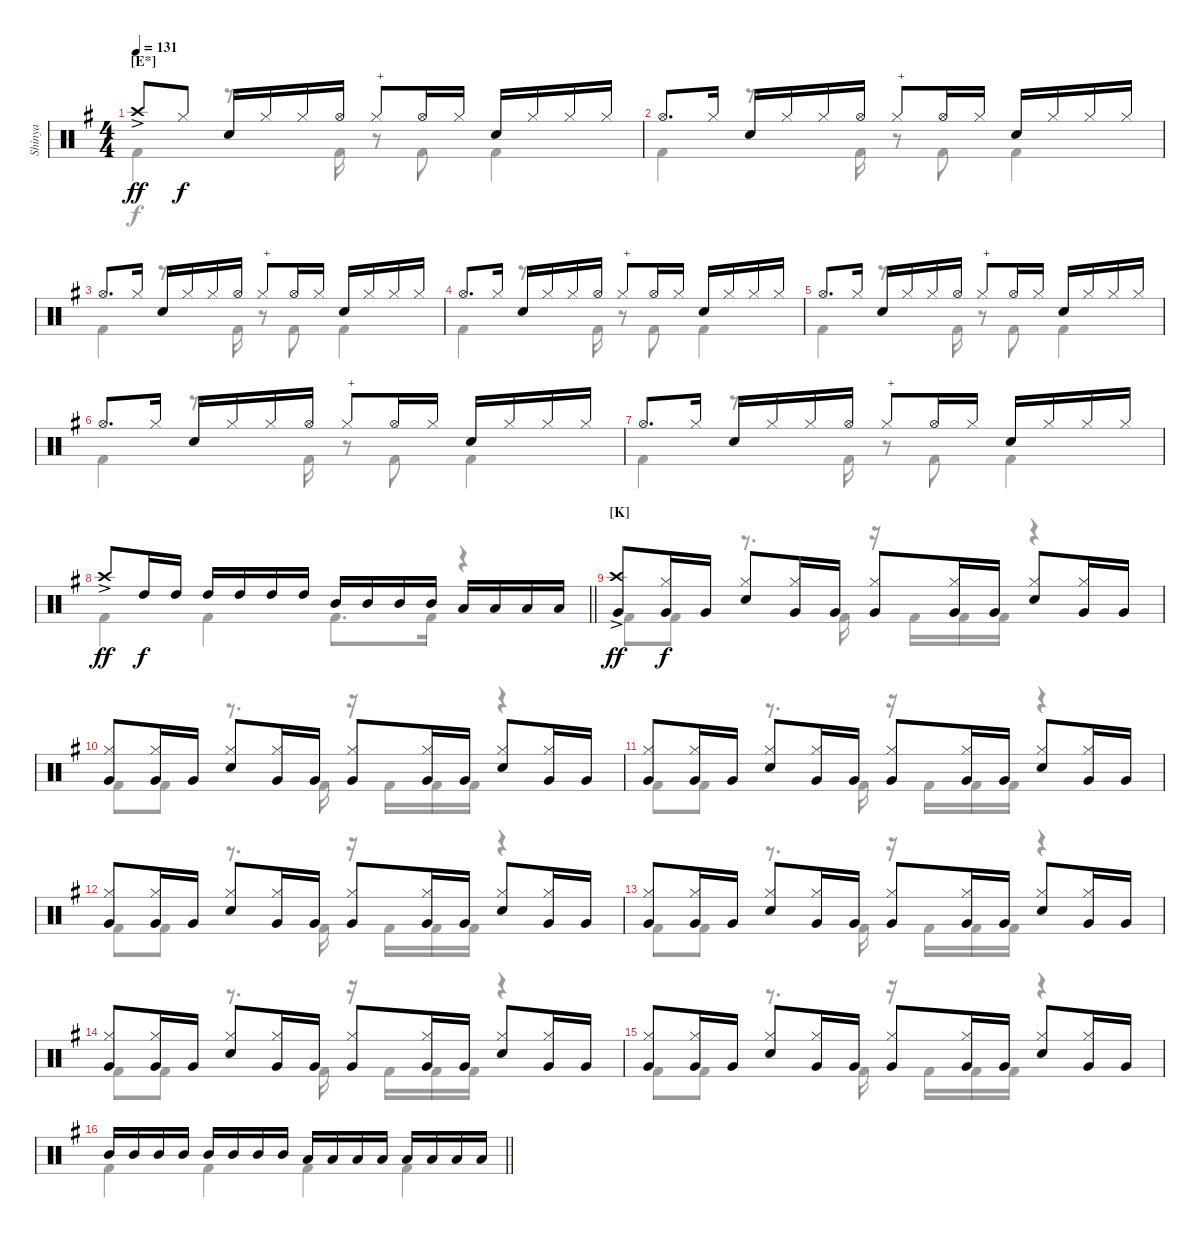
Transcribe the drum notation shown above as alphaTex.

\track ("Shinya" "Shinya") {instrument percussion}
\staff {score}
\articulation defaults
\voice
\ts (4 4)
\section ("" "[E*]")
\tempo 131
\clef neutral
\ks eminor "Crash high (hit)"{ac}.8{dy ff} "Hi-Hat (closed)".8{dy f} "Snare (hit) 2".16 "Hi-Hat (closed)".16 "Hi-Hat (closed)".16 "Hi-Hat (open)".16 "Hi-Hat (closed)".8{txt "+"} "Hi-Hat (open)".16 "Hi-Hat (closed)".16 "Snare (hit) 2".16 "Hi-Hat (closed)".16 "Hi-Hat (closed)".16 "Hi-Hat (closed)".16
|
"Hi-Hat (open)".8{d} "Hi-Hat (closed)".16 "Snare (hit) 2".16 "Hi-Hat (closed)".16 "Hi-Hat (closed)".16 "Hi-Hat (open)".16 "Hi-Hat (closed)".8{txt "+"} "Hi-Hat (open)".16 "Hi-Hat (closed)".16 "Snare (hit) 2".16 "Hi-Hat (closed)".16 "Hi-Hat (closed)".16 "Hi-Hat (closed)".16 |
"Hi-Hat (open)".8{d} "Hi-Hat (closed)".16 "Snare (hit) 2".16 "Hi-Hat (closed)".16 "Hi-Hat (closed)".16 "Hi-Hat (open)".16 "Hi-Hat (closed)".8{txt "+"} "Hi-Hat (open)".16 "Hi-Hat (closed)".16 "Snare (hit) 2".16 "Hi-Hat (closed)".16 "Hi-Hat (closed)".16 "Hi-Hat (closed)".16 |
"Hi-Hat (open)".8{d} "Hi-Hat (closed)".16 "Snare (hit) 2".16 "Hi-Hat (closed)".16 "Hi-Hat (closed)".16 "Hi-Hat (open)".16 "Hi-Hat (closed)".8{txt "+"} "Hi-Hat (open)".16 "Hi-Hat (closed)".16 "Snare (hit) 2".16 "Hi-Hat (closed)".16 "Hi-Hat (closed)".16 "Hi-Hat (closed)".16 |
"Hi-Hat (open)".8{d} "Hi-Hat (closed)".16 "Snare (hit) 2".16 "Hi-Hat (closed)".16 "Hi-Hat (closed)".16 "Hi-Hat (open)".16 "Hi-Hat (closed)".8{txt "+"} "Hi-Hat (open)".16 "Hi-Hat (closed)".16 "Snare (hit) 2".16 "Hi-Hat (closed)".16 "Hi-Hat (closed)".16 "Hi-Hat (closed)".16 |
"Hi-Hat (open)".8{d} "Hi-Hat (closed)".16 "Snare (hit) 2".16 "Hi-Hat (closed)".16 "Hi-Hat (closed)".16 "Hi-Hat (open)".16 "Hi-Hat (closed)".8{txt "+"} "Hi-Hat (open)".16 "Hi-Hat (closed)".16 "Snare (hit) 2".16 "Hi-Hat (closed)".16 "Hi-Hat (closed)".16 "Hi-Hat (closed)".16 |
"Hi-Hat (open)".8{d} "Hi-Hat (closed)".16 "Snare (hit) 2".16 "Hi-Hat (closed)".16 "Hi-Hat (closed)".16 "Hi-Hat (open)".16 "Hi-Hat (closed)".8{txt "+"} "Hi-Hat (open)".16 "Hi-Hat (closed)".16 "Snare (hit) 2".16 "Hi-Hat (closed)".16 "Hi-Hat (closed)".16 "Hi-Hat (closed)".16 |
\barLineRight lightlight "Crash high (hit)"{ac}.8{dy ff} "High Tom (hit)".16{dy f} "High Tom (hit)".16 "High Tom (hit)".16 "High Tom (hit)".16 "High Tom (hit)".16 "High Tom (hit)".16 "Mid Tom (hit)".16 "Mid Tom (hit)".16 "Mid Tom (hit)".16 "Mid Tom (hit)".16 "Low Tom (hit)".16 "Low Tom (hit)".16 "Low Tom (hit)".16 "Low Tom (hit)".16
|
\section ("" "[K]")
("Crash high (hit)"{ac} "Very Low Tom (hit)").8{dy ff} ("Hi-Hat (closed)" "Very Low Tom (hit)").16{dy f} "Very Low Tom (hit)".16 ("Hi-Hat (closed)" "Snare (hit) 2").8 ("Hi-Hat (closed)" "Very Low Tom (hit)").16 "Very Low Tom (hit)".16 ("Hi-Hat (closed)" "Very Low Tom (hit)").8 ("Hi-Hat (closed)" "Very Low Tom (hit)").16 "Very Low Tom (hit)".16 ("Hi-Hat (closed)" "Snare (hit) 2").8 ("Hi-Hat (closed)" "Very Low Tom (hit)").16 "Very Low Tom (hit)".16 |
("Hi-Hat (closed)" "Very Low Tom (hit)").8 ("Hi-Hat (closed)" "Very Low Tom (hit)").16 "Very Low Tom (hit)".16 ("Hi-Hat (closed)" "Snare (hit) 2").8 ("Hi-Hat (closed)" "Very Low Tom (hit)").16 "Very Low Tom (hit)".16 ("Hi-Hat (closed)" "Very Low Tom (hit)").8 ("Hi-Hat (closed)" "Very Low Tom (hit)").16 "Very Low Tom (hit)".16 ("Hi-Hat (closed)" "Snare (hit) 2").8 ("Hi-Hat (closed)" "Very Low Tom (hit)").16 "Very Low Tom (hit)".16 |
("Hi-Hat (closed)" "Very Low Tom (hit)").8 ("Hi-Hat (closed)" "Very Low Tom (hit)").16 "Very Low Tom (hit)".16 ("Hi-Hat (closed)" "Snare (hit) 2").8 ("Hi-Hat (closed)" "Very Low Tom (hit)").16 "Very Low Tom (hit)".16 ("Hi-Hat (closed)" "Very Low Tom (hit)").8 ("Hi-Hat (closed)" "Very Low Tom (hit)").16 "Very Low Tom (hit)".16 ("Hi-Hat (closed)" "Snare (hit) 2").8 ("Hi-Hat (closed)" "Very Low Tom (hit)").16 "Very Low Tom (hit)".16 |
("Hi-Hat (closed)" "Very Low Tom (hit)").8 ("Hi-Hat (closed)" "Very Low Tom (hit)").16 "Very Low Tom (hit)".16 ("Hi-Hat (closed)" "Snare (hit) 2").8 ("Hi-Hat (closed)" "Very Low Tom (hit)").16 "Very Low Tom (hit)".16 ("Hi-Hat (closed)" "Very Low Tom (hit)").8 ("Hi-Hat (closed)" "Very Low Tom (hit)").16 "Very Low Tom (hit)".16 ("Hi-Hat (closed)" "Snare (hit) 2").8 ("Hi-Hat (closed)" "Very Low Tom (hit)").16 "Very Low Tom (hit)".16 |
("Hi-Hat (closed)" "Very Low Tom (hit)").8 ("Hi-Hat (closed)" "Very Low Tom (hit)").16 "Very Low Tom (hit)".16 ("Hi-Hat (closed)" "Snare (hit) 2").8 ("Hi-Hat (closed)" "Very Low Tom (hit)").16 "Very Low Tom (hit)".16 ("Hi-Hat (closed)" "Very Low Tom (hit)").8 ("Hi-Hat (closed)" "Very Low Tom (hit)").16 "Very Low Tom (hit)".16 ("Hi-Hat (closed)" "Snare (hit) 2").8 ("Hi-Hat (closed)" "Very Low Tom (hit)").16 "Very Low Tom (hit)".16 |
("Hi-Hat (closed)" "Very Low Tom (hit)").8 ("Hi-Hat (closed)" "Very Low Tom (hit)").16 "Very Low Tom (hit)".16 ("Hi-Hat (closed)" "Snare (hit) 2").8 ("Hi-Hat (closed)" "Very Low Tom (hit)").16 "Very Low Tom (hit)".16 ("Hi-Hat (closed)" "Very Low Tom (hit)").8 ("Hi-Hat (closed)" "Very Low Tom (hit)").16 "Very Low Tom (hit)".16 ("Hi-Hat (closed)" "Snare (hit) 2").8 ("Hi-Hat (closed)" "Very Low Tom (hit)").16 "Very Low Tom (hit)".16 |
("Hi-Hat (closed)" "Very Low Tom (hit)").8 ("Hi-Hat (closed)" "Very Low Tom (hit)").16 "Very Low Tom (hit)".16 ("Hi-Hat (closed)" "Snare (hit) 2").8 ("Hi-Hat (closed)" "Very Low Tom (hit)").16 "Very Low Tom (hit)".16 ("Hi-Hat (closed)" "Very Low Tom (hit)").8 ("Hi-Hat (closed)" "Very Low Tom (hit)").16 "Very Low Tom (hit)".16 ("Hi-Hat (closed)" "Snare (hit) 2").8 ("Hi-Hat (closed)" "Very Low Tom (hit)").16 "Very Low Tom (hit)".16 |
\barLineRight lightlight "Mid Tom (hit)".16 "Mid Tom (hit)".16 "Mid Tom (hit)".16 "Mid Tom (hit)".16 "Mid Tom (hit)".16 "Mid Tom (hit)".16 "Mid Tom (hit)".16 "Mid Tom (hit)".16 "Low Tom (hit)".16 "Low Tom (hit)".16 "Low Tom (hit)".16 "Low Tom (hit)".16 "Low Tom (hit)".16 "Low Tom (hit)".16 "Low Tom (hit)".16 "Low Tom (hit)".16
\voice
\clef neutral
\ottava regular
\simile none
\ks eminor "Kick (hit) 2".4{dy f}
r.8{d} "Kick (hit) 2".16 r.8 "Kick (hit) 2".8 "Kick (hit) 2".4 |
"Kick (hit) 2".4 r.8{d} "Kick (hit) 2".16 r.8 "Kick (hit) 2".8 "Kick (hit) 2".4 |
"Kick (hit) 2".4 r.8{d} "Kick (hit) 2".16 r.8 "Kick (hit) 2".8 "Kick (hit) 2".4 |
"Kick (hit) 2".4 r.8{d} "Kick (hit) 2".16 r.8 "Kick (hit) 2".8 "Kick (hit) 2".4 |
"Kick (hit) 2".4 r.8{d} "Kick (hit) 2".16 r.8 "Kick (hit) 2".8 "Kick (hit) 2".4 |
"Kick (hit) 2".4 r.8{d} "Kick (hit) 2".16 r.8 "Kick (hit) 2".8 "Kick (hit) 2".4 |
"Kick (hit) 2".4 r.8{d} "Kick (hit) 2".16 r.8 "Kick (hit) 2".8 "Kick (hit) 2".4 |
\barLineRight lightlight "Kick (hit) 2".4 "Kick (hit) 2".4 "Kick (hit) 2".8{d} "Kick (hit) 2".16
r.4 |
"Kick (hit) 2".8 "Kick (hit) 2".8 r.8{d} "Kick (hit) 2".16 r.16 "Kick (hit) 2".16 "Kick (hit) 2".16 "Kick (hit) 2".16 r.4 |
"Kick (hit) 2".8 "Kick (hit) 2".8 r.8{d} "Kick (hit) 2".16 r.16 "Kick (hit) 2".16 "Kick (hit) 2".16 "Kick (hit) 2".16 r.4 |
"Kick (hit) 2".8 "Kick (hit) 2".8 r.8{d} "Kick (hit) 2".16 r.16 "Kick (hit) 2".16 "Kick (hit) 2".16 "Kick (hit) 2".16 r.4 |
"Kick (hit) 2".8 "Kick (hit) 2".8 r.8{d} "Kick (hit) 2".16 r.16 "Kick (hit) 2".16 "Kick (hit) 2".16 "Kick (hit) 2".16 r.4 |
"Kick (hit) 2".8 "Kick (hit) 2".8 r.8{d} "Kick (hit) 2".16 r.16 "Kick (hit) 2".16 "Kick (hit) 2".16 "Kick (hit) 2".16 r.4 |
"Kick (hit) 2".8 "Kick (hit) 2".8 r.8{d} "Kick (hit) 2".16 r.16 "Kick (hit) 2".16 "Kick (hit) 2".16 "Kick (hit) 2".16 r.4 |
"Kick (hit) 2".8 "Kick (hit) 2".8 r.8{d} "Kick (hit) 2".16 r.16 "Kick (hit) 2".16 "Kick (hit) 2".16 "Kick (hit) 2".16 r.4 |
\barLineRight lightlight "Kick (hit) 2".4 "Kick (hit) 2".4 "Kick (hit) 2".4 "Kick (hit) 2".4
